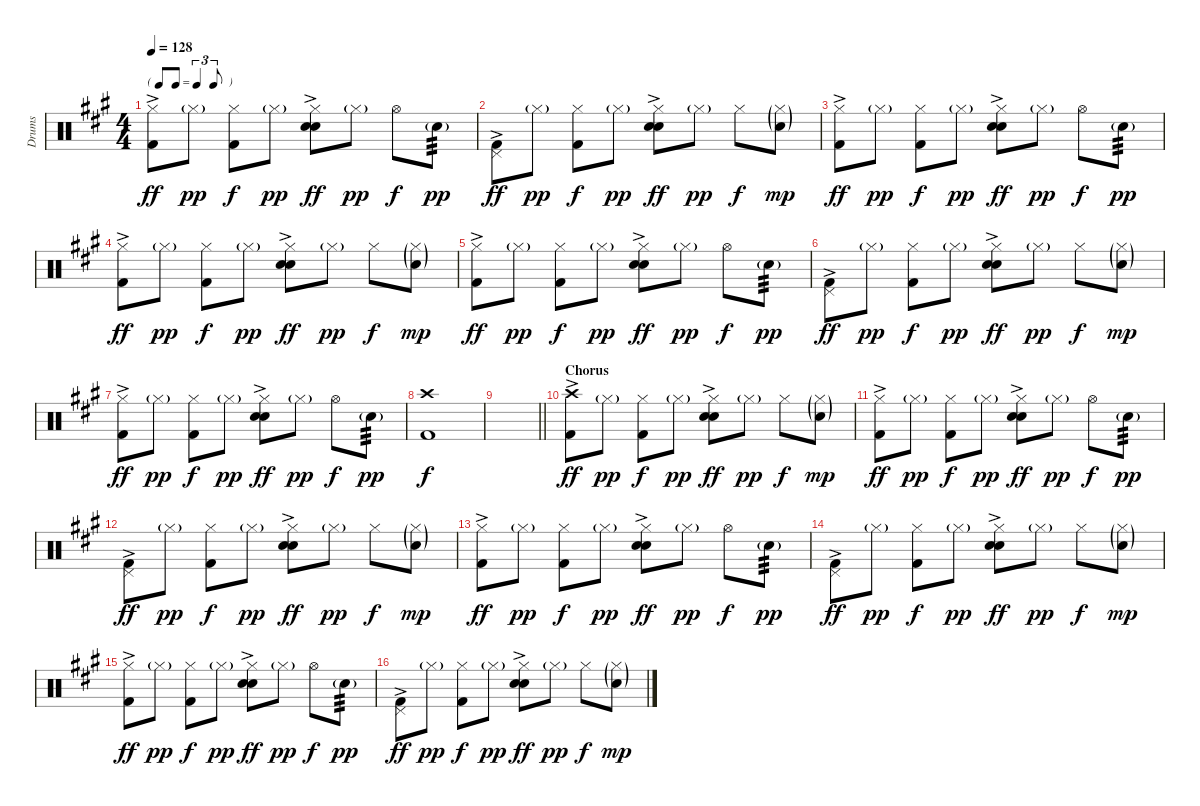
\track ("Drums" "Drums") {instrument percussion}
\staff {score}
\articulation defaults
\ts (4 4)
\tf triplet8th
\tempo 128
\clef neutral
\ks a
("Hi-Hat (closed)" "Kick (hit) 2"{ac}).8{dy ff} "Hi-Hat (closed)"{g}.8{dy pp} ("Hi-Hat (closed)" "Kick (hit) 2").8{dy f} "Hi-Hat (closed)"{g}.8{dy pp} ("Hi-Hat (closed)" "Electric Snare (hit)"{ac} "Snare (hit) 2").8{dy ff} "Hi-Hat (closed)"{g}.8{dy pp} "Hi-Hat (open)".8{dy f} "Snare (hit) 2"{g}.8{tp 3 dy pp} |
("Pedal Hi-Hat (hit)" "Kick (hit) 2"{ac}).8{dy ff} "Hi-Hat (closed)"{g}.8{dy pp} ("Hi-Hat (closed)" "Kick (hit) 2").8{dy f} "Hi-Hat (closed)"{g}.8{dy pp} ("Hi-Hat (closed)" "Electric Snare (hit)"{ac} "Snare (hit) 2").8{dy ff} "Hi-Hat (closed)"{g}.8{dy pp} "Hi-Hat (closed)".8{dy f} ("Hi-Hat (closed)"{g} "Snare (hit) 2"{g}).8{dy mp} |
("Hi-Hat (closed)" "Kick (hit) 2"{ac}).8{dy ff} "Hi-Hat (closed)"{g}.8{dy pp} ("Hi-Hat (closed)" "Kick (hit) 2").8{dy f} "Hi-Hat (closed)"{g}.8{dy pp} ("Hi-Hat (closed)" "Electric Snare (hit)"{ac} "Snare (hit) 2").8{dy ff} "Hi-Hat (closed)"{g}.8{dy pp} "Hi-Hat (open)".8{dy f} "Snare (hit) 2"{g}.8{tp 3 dy pp} |
("Hi-Hat (closed)" "Kick (hit) 2"{ac}).8{dy ff} "Hi-Hat (closed)"{g}.8{dy pp} ("Hi-Hat (closed)" "Kick (hit) 2").8{dy f} "Hi-Hat (closed)"{g}.8{dy pp} ("Hi-Hat (closed)" "Electric Snare (hit)"{ac} "Snare (hit) 2").8{dy ff} "Hi-Hat (closed)"{g}.8{dy pp} "Hi-Hat (closed)".8{dy f} ("Hi-Hat (closed)"{g} "Snare (hit) 2"{g}).8{dy mp} |
("Hi-Hat (closed)" "Kick (hit) 2"{ac}).8{dy ff} "Hi-Hat (closed)"{g}.8{dy pp} ("Hi-Hat (closed)" "Kick (hit) 2").8{dy f} "Hi-Hat (closed)"{g}.8{dy pp} ("Hi-Hat (closed)" "Electric Snare (hit)"{ac} "Snare (hit) 2").8{dy ff} "Hi-Hat (closed)"{g}.8{dy pp} "Hi-Hat (open)".8{dy f} "Snare (hit) 2"{g}.8{tp 3 dy pp} |
("Pedal Hi-Hat (hit)" "Kick (hit) 2"{ac}).8{dy ff} "Hi-Hat (closed)"{g}.8{dy pp} ("Hi-Hat (closed)" "Kick (hit) 2").8{dy f} "Hi-Hat (closed)"{g}.8{dy pp} ("Hi-Hat (closed)" "Electric Snare (hit)"{ac} "Snare (hit) 2").8{dy ff} "Hi-Hat (closed)"{g}.8{dy pp} "Hi-Hat (closed)".8{dy f} ("Hi-Hat (closed)"{g} "Snare (hit) 2"{g}).8{dy mp} |
("Hi-Hat (closed)" "Kick (hit) 2"{ac}).8{dy ff} "Hi-Hat (closed)"{g}.8{dy pp} ("Hi-Hat (closed)" "Kick (hit) 2").8{dy f} "Hi-Hat (closed)"{g}.8{dy pp} ("Hi-Hat (closed)" "Electric Snare (hit)"{ac} "Snare (hit) 2").8{dy ff} "Hi-Hat (closed)"{g}.8{dy pp} "Hi-Hat (open)".8{dy f} "Snare (hit) 2"{g}.8{tp 3 dy pp} |
("Crash high (hit)" "Kick (hit) 2").1{dy f} |
\barLineRight lightlight
|
\section ("" "Chorus")
("Crash high (hit)" "Kick (hit) 2"{ac}).8{dy ff} "Hi-Hat (closed)"{g}.8{dy pp} ("Hi-Hat (closed)" "Kick (hit) 2").8{dy f} "Hi-Hat (closed)"{g}.8{dy pp} ("Hi-Hat (closed)" "Electric Snare (hit)"{ac} "Snare (hit) 2").8{dy ff} "Hi-Hat (closed)"{g}.8{dy pp} "Hi-Hat (closed)".8{dy f} ("Hi-Hat (closed)"{g} "Snare (hit) 2"{g}).8{dy mp} |
("Hi-Hat (closed)" "Kick (hit) 2"{ac}).8{dy ff} "Hi-Hat (closed)"{g}.8{dy pp} ("Hi-Hat (closed)" "Kick (hit) 2").8{dy f} "Hi-Hat (closed)"{g}.8{dy pp} ("Hi-Hat (closed)" "Electric Snare (hit)"{ac} "Snare (hit) 2").8{dy ff} "Hi-Hat (closed)"{g}.8{dy pp} "Hi-Hat (open)".8{dy f} "Snare (hit) 2"{g}.8{tp 3 dy pp} |
("Pedal Hi-Hat (hit)" "Kick (hit) 2"{ac}).8{dy ff} "Hi-Hat (closed)"{g}.8{dy pp} ("Hi-Hat (closed)" "Kick (hit) 2").8{dy f} "Hi-Hat (closed)"{g}.8{dy pp} ("Hi-Hat (closed)" "Electric Snare (hit)"{ac} "Snare (hit) 2").8{dy ff} "Hi-Hat (closed)"{g}.8{dy pp} "Hi-Hat (closed)".8{dy f} ("Hi-Hat (closed)"{g} "Snare (hit) 2"{g}).8{dy mp} |
("Hi-Hat (closed)" "Kick (hit) 2"{ac}).8{dy ff} "Hi-Hat (closed)"{g}.8{dy pp} ("Hi-Hat (closed)" "Kick (hit) 2").8{dy f} "Hi-Hat (closed)"{g}.8{dy pp} ("Hi-Hat (closed)" "Electric Snare (hit)"{ac} "Snare (hit) 2").8{dy ff} "Hi-Hat (closed)"{g}.8{dy pp} "Hi-Hat (open)".8{dy f} "Snare (hit) 2"{g}.8{tp 3 dy pp} |
("Pedal Hi-Hat (hit)" "Kick (hit) 2"{ac}).8{dy ff} "Hi-Hat (closed)"{g}.8{dy pp} ("Hi-Hat (closed)" "Kick (hit) 2").8{dy f} "Hi-Hat (closed)"{g}.8{dy pp} ("Hi-Hat (closed)" "Electric Snare (hit)"{ac} "Snare (hit) 2").8{dy ff} "Hi-Hat (closed)"{g}.8{dy pp} "Hi-Hat (closed)".8{dy f} ("Hi-Hat (closed)"{g} "Snare (hit) 2"{g}).8{dy mp} |
("Hi-Hat (closed)" "Kick (hit) 2"{ac}).8{dy ff} "Hi-Hat (closed)"{g}.8{dy pp} ("Hi-Hat (closed)" "Kick (hit) 2").8{dy f} "Hi-Hat (closed)"{g}.8{dy pp} ("Hi-Hat (closed)" "Electric Snare (hit)"{ac} "Snare (hit) 2").8{dy ff} "Hi-Hat (closed)"{g}.8{dy pp} "Hi-Hat (open)".8{dy f} "Snare (hit) 2"{g}.8{tp 3 dy pp} |
("Pedal Hi-Hat (hit)" "Kick (hit) 2"{ac}).8{dy ff} "Hi-Hat (closed)"{g}.8{dy pp} ("Hi-Hat (closed)" "Kick (hit) 2").8{dy f} "Hi-Hat (closed)"{g}.8{dy pp} ("Hi-Hat (closed)" "Electric Snare (hit)"{ac} "Snare (hit) 2").8{dy ff} "Hi-Hat (closed)"{g}.8{dy pp} "Hi-Hat (closed)".8{dy f} ("Hi-Hat (closed)"{g} "Snare (hit) 2"{g}).8{dy mp}
